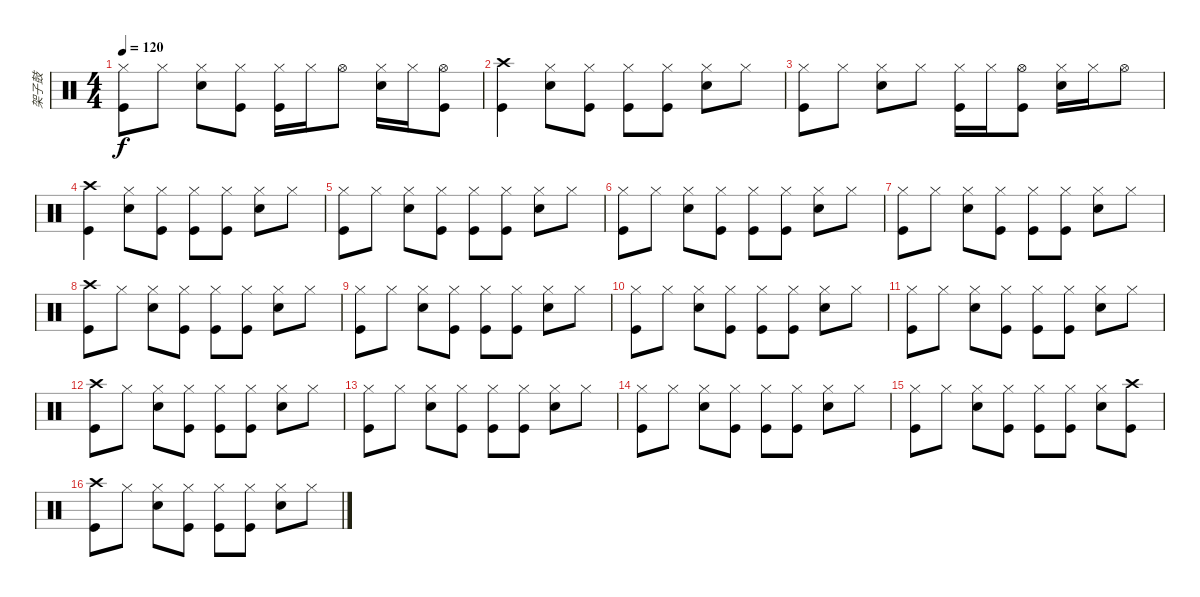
\track ("架子鼓" "架子鼓") {instrument percussion}
\staff {score}
\articulation defaults
\ts (4 4)
\tempo 120
\clef neutral
\ks c
("Hi-Hat (closed)" "Kick (hit)").8{dy f} "Hi-Hat (closed)".8 ("Hi-Hat (closed)" "Snare (hit) 2").8 ("Hi-Hat (closed)" "Kick (hit)").8 ("Hi-Hat (closed)" "Kick (hit)").16 "Hi-Hat (closed)".16 "Hi-Hat (open)".8 ("Hi-Hat (closed)" "Snare (hit) 2").16 "Hi-Hat (closed)".16 ("Hi-Hat (open)" "Kick (hit)").8 |
("Crash high (hit)" "Kick (hit)").4 ("Hi-Hat (closed)" "Snare (hit) 2").8 ("Hi-Hat (closed)" "Kick (hit)").8 ("Hi-Hat (closed)" "Kick (hit)").8 ("Hi-Hat (closed)" "Kick (hit)").8 ("Hi-Hat (closed)" "Snare (hit) 2").8 "Hi-Hat (closed)".8 |
("Hi-Hat (closed)" "Kick (hit)").8 "Hi-Hat (closed)".8 ("Hi-Hat (closed)" "Snare (hit) 2").8 "Hi-Hat (closed)".8 ("Hi-Hat (closed)" "Kick (hit)").16 "Hi-Hat (closed)".16 ("Hi-Hat (open)" "Kick (hit)").8 ("Hi-Hat (closed)" "Snare (hit) 2").16 "Hi-Hat (closed)".16 "Hi-Hat (open)".8 |
("Crash high (hit)" "Kick (hit)").4 ("Hi-Hat (closed)" "Snare (hit) 2").8 ("Hi-Hat (closed)" "Kick (hit)").8 ("Hi-Hat (closed)" "Kick (hit)").8 ("Hi-Hat (closed)" "Kick (hit)").8 ("Hi-Hat (closed)" "Snare (hit) 2").8 "Hi-Hat (closed)".8 |
("Hi-Hat (closed)" "Kick (hit)").8 "Hi-Hat (closed)".8 ("Hi-Hat (closed)" "Snare (hit) 2").8 ("Hi-Hat (closed)" "Kick (hit)").8 ("Hi-Hat (closed)" "Kick (hit)").8 ("Hi-Hat (closed)" "Kick (hit)").8 ("Hi-Hat (closed)" "Snare (hit) 2").8 "Hi-Hat (closed)".8 |
("Hi-Hat (closed)" "Kick (hit)").8 "Hi-Hat (closed)".8 ("Hi-Hat (closed)" "Snare (hit) 2").8 ("Hi-Hat (closed)" "Kick (hit)").8 ("Hi-Hat (closed)" "Kick (hit)").8 ("Hi-Hat (closed)" "Kick (hit)").8 ("Hi-Hat (closed)" "Snare (hit) 2").8 "Hi-Hat (closed)".8 |
("Hi-Hat (closed)" "Kick (hit)").8 "Hi-Hat (closed)".8 ("Hi-Hat (closed)" "Snare (hit) 2").8 ("Hi-Hat (closed)" "Kick (hit)").8 ("Hi-Hat (closed)" "Kick (hit)").8 ("Hi-Hat (closed)" "Kick (hit)").8 ("Hi-Hat (closed)" "Snare (hit) 2").8 "Hi-Hat (closed)".8 |
("Crash high (hit)" "Kick (hit)").8 "Hi-Hat (closed)".8 ("Hi-Hat (closed)" "Snare (hit) 2").8 ("Hi-Hat (closed)" "Kick (hit)").8 ("Hi-Hat (closed)" "Kick (hit)").8 ("Hi-Hat (closed)" "Kick (hit)").8 ("Hi-Hat (closed)" "Snare (hit) 2").8 "Hi-Hat (closed)".8 |
("Hi-Hat (closed)" "Kick (hit)").8 "Hi-Hat (closed)".8 ("Hi-Hat (closed)" "Snare (hit) 2").8 ("Hi-Hat (closed)" "Kick (hit)").8 ("Hi-Hat (closed)" "Kick (hit)").8 ("Hi-Hat (closed)" "Kick (hit)").8 ("Hi-Hat (closed)" "Snare (hit) 2").8 "Hi-Hat (closed)".8 |
("Hi-Hat (closed)" "Kick (hit)").8 "Hi-Hat (closed)".8 ("Hi-Hat (closed)" "Snare (hit) 2").8 ("Hi-Hat (closed)" "Kick (hit)").8 ("Hi-Hat (closed)" "Kick (hit)").8 ("Hi-Hat (closed)" "Kick (hit)").8 ("Hi-Hat (closed)" "Snare (hit) 2").8 "Hi-Hat (closed)".8 |
("Hi-Hat (closed)" "Kick (hit)").8 "Hi-Hat (closed)".8 ("Hi-Hat (closed)" "Snare (hit) 2").8 ("Hi-Hat (closed)" "Kick (hit)").8 ("Hi-Hat (closed)" "Kick (hit)").8 ("Hi-Hat (closed)" "Kick (hit)").8 ("Hi-Hat (closed)" "Snare (hit) 2").8 "Hi-Hat (closed)".8 |
("Crash high (hit)" "Kick (hit)").8 "Hi-Hat (closed)".8 ("Hi-Hat (closed)" "Snare (hit) 2").8 ("Hi-Hat (closed)" "Kick (hit)").8 ("Hi-Hat (closed)" "Kick (hit)").8 ("Hi-Hat (closed)" "Kick (hit)").8 ("Hi-Hat (closed)" "Snare (hit) 2").8 "Hi-Hat (closed)".8 |
("Hi-Hat (closed)" "Kick (hit)").8 "Hi-Hat (closed)".8 ("Hi-Hat (closed)" "Snare (hit) 2").8 ("Hi-Hat (closed)" "Kick (hit)").8 ("Hi-Hat (closed)" "Kick (hit)").8 ("Hi-Hat (closed)" "Kick (hit)").8 ("Hi-Hat (closed)" "Snare (hit) 2").8 "Hi-Hat (closed)".8 |
("Hi-Hat (closed)" "Kick (hit)").8 "Hi-Hat (closed)".8 ("Hi-Hat (closed)" "Snare (hit) 2").8 ("Hi-Hat (closed)" "Kick (hit)").8 ("Hi-Hat (closed)" "Kick (hit)").8 ("Hi-Hat (closed)" "Kick (hit)").8 ("Hi-Hat (closed)" "Snare (hit) 2").8 "Hi-Hat (closed)".8 |
("Hi-Hat (closed)" "Kick (hit)").8 "Hi-Hat (closed)".8 ("Hi-Hat (closed)" "Snare (hit) 2").8 ("Hi-Hat (closed)" "Kick (hit)").8 ("Hi-Hat (closed)" "Kick (hit)").8 ("Hi-Hat (closed)" "Kick (hit)").8 ("Hi-Hat (closed)" "Snare (hit) 2").8 ("Crash high (hit)" "Kick (hit)").8 |
("Crash high (hit)" "Kick (hit)").8 "Hi-Hat (closed)".8 ("Hi-Hat (closed)" "Snare (hit) 2").8 ("Hi-Hat (closed)" "Kick (hit)").8 ("Hi-Hat (closed)" "Kick (hit)").8 ("Hi-Hat (closed)" "Kick (hit)").8 ("Hi-Hat (closed)" "Snare (hit) 2").8 "Hi-Hat (closed)".8
